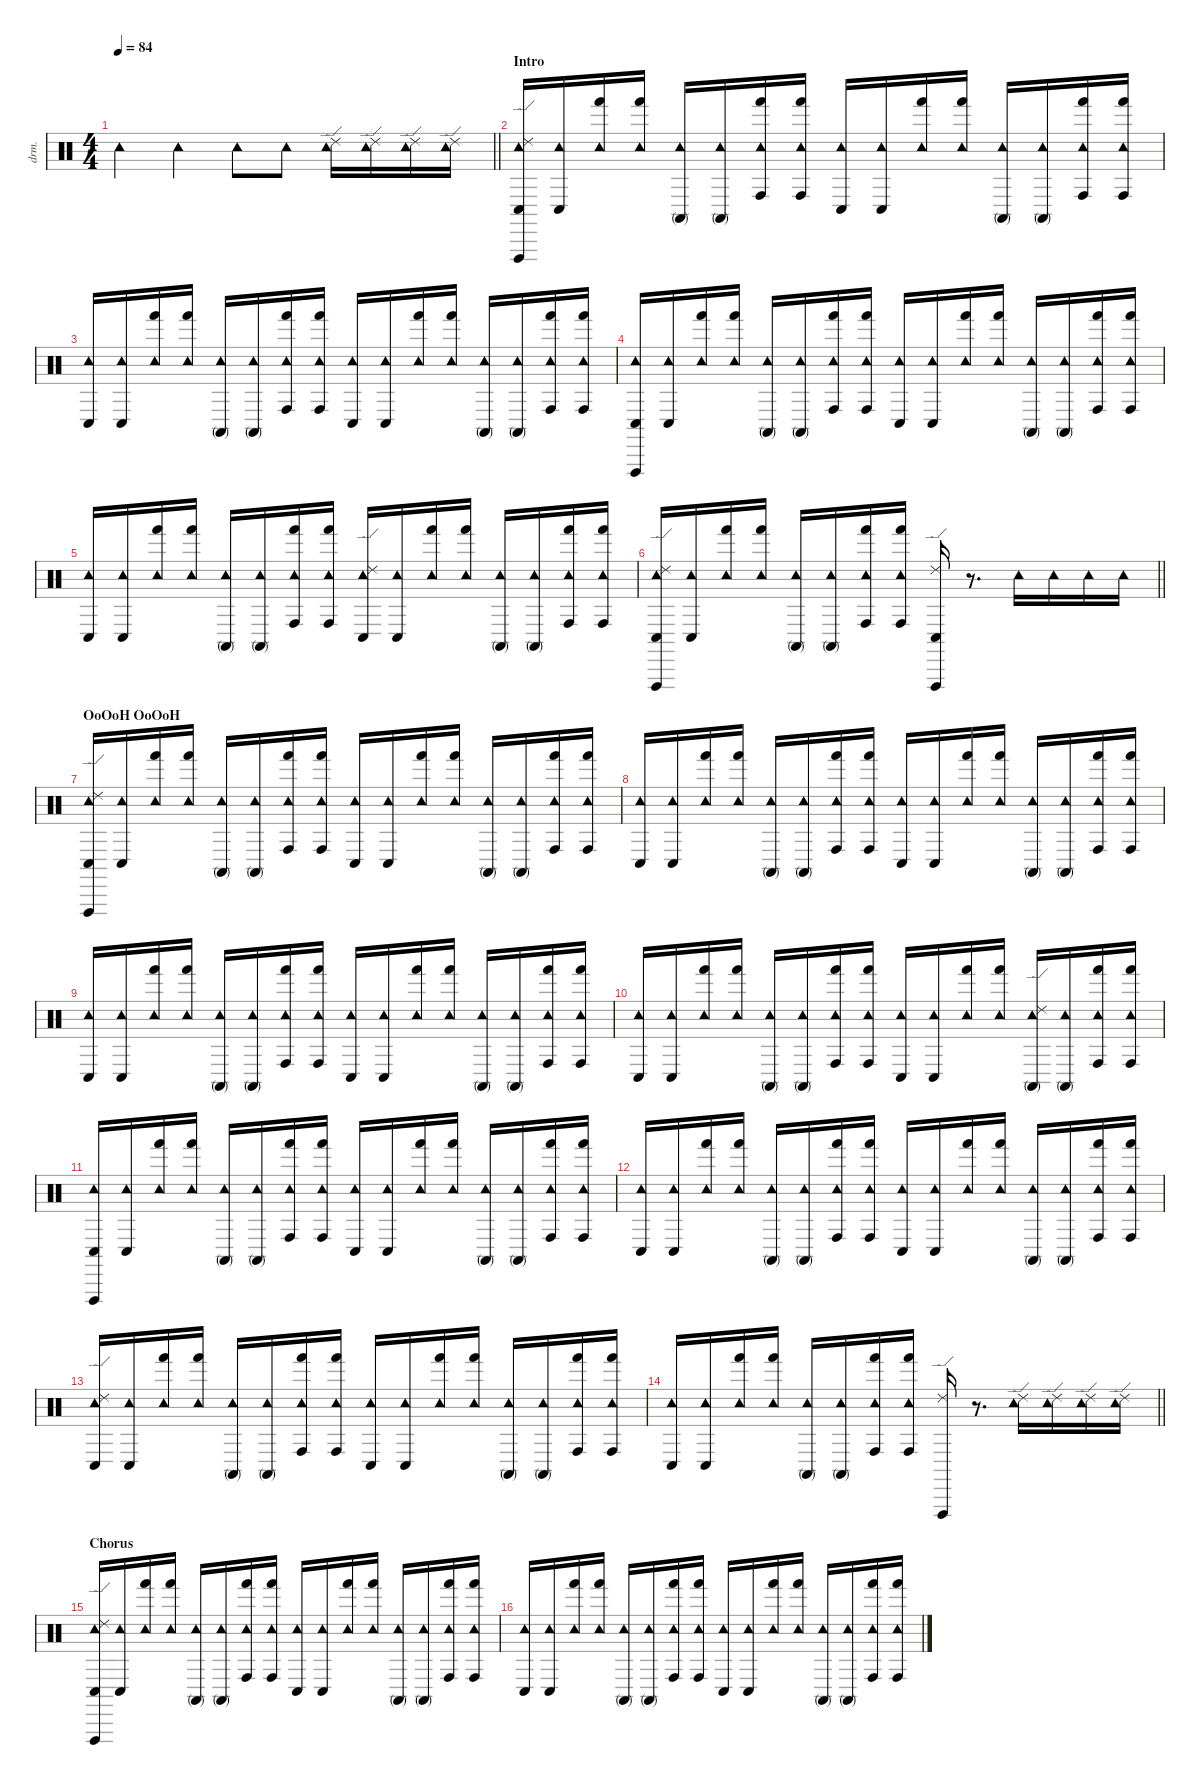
\defaultSystemsLayout 4
\hideDynamics
\bracketExtendMode nobrackets
\otherSystemsTrackNameOrientation horizontal
\track ("Conga + Tambourine" "drm.") {instrument percussion}
\staff {score}
\articulation defaults
\ts (4 4)
\tempo 84
\clef neutral
\barLineRight lightlight
\ks c "Tambourine (hit)".4{dy f beam Down} "Tambourine (hit)".4{beam Down} "Tambourine (hit)".8{beam Down} "Tambourine (hit)".8{dy mf beam Down}
("Tambourine (hit)" "Ride (edge) 2").16{dy mp beam Down} ("Tambourine (hit)" "Ride (edge) 2").16{dy mf beam Down} ("Tambourine (hit)" "Ride (edge) 2").16{dy f beam Down} ("Tambourine (hit)" "Ride (edge) 2").16{beam Down} |
\section ("" "Intro")
("Conga low (hit)" "Vibraslap (hit)" "Tambourine (hit)" "Ride (edge) 2").16{beam Up} ("Conga low (hit)" "Tambourine (hit)").16{beam Up} ("Hand (hit)" "Tambourine (hit)").16{beam Up} ("Hand (hit)" "Tambourine (hit)").16{beam Up} ("Conga high (mute)" "Tambourine (hit)").16{beam Up} ("Conga high (mute)" "Tambourine (hit)").16{beam Up} ("Conga high (hit)" "Hand (hit)" "Tambourine (hit)").16{beam Up} ("Conga high (hit)" "Hand (hit)" "Tambourine (hit)").16{beam Up} ("Conga low (hit)" "Tambourine (hit)").16{beam Up} ("Conga low (hit)" "Tambourine (hit)").16{beam Up} ("Hand (hit)" "Tambourine (hit)").16{beam Up} ("Hand (hit)" "Tambourine (hit)").16{beam Up} ("Conga high (mute)" "Tambourine (hit)").16{beam Up} ("Conga high (mute)" "Tambourine (hit)").16{beam Up} ("Conga high (hit)" "Hand (hit)" "Tambourine (hit)").16{beam Up} ("Conga high (hit)" "Hand (hit)" "Tambourine (hit)").16{beam Up} |
("Conga low (hit)" "Tambourine (hit)").16{beam Up} ("Conga low (hit)" "Tambourine (hit)").16{beam Up} ("Hand (hit)" "Tambourine (hit)").16{beam Up} ("Hand (hit)" "Tambourine (hit)").16{beam Up} ("Conga high (mute)" "Tambourine (hit)").16{beam Up} ("Conga high (mute)" "Tambourine (hit)").16{beam Up} ("Conga high (hit)" "Hand (hit)" "Tambourine (hit)").16{beam Up} ("Conga high (hit)" "Hand (hit)" "Tambourine (hit)").16{beam Up} ("Conga low (hit)" "Tambourine (hit)").16{beam Up} ("Conga low (hit)" "Tambourine (hit)").16{beam Up} ("Hand (hit)" "Tambourine (hit)").16{beam Up} ("Hand (hit)" "Tambourine (hit)").16{beam Up} ("Conga high (mute)" "Tambourine (hit)").16{beam Up} ("Conga high (mute)" "Tambourine (hit)").16{beam Up} ("Conga high (hit)" "Hand (hit)" "Tambourine (hit)").16{beam Up} ("Conga high (hit)" "Hand (hit)" "Tambourine (hit)").16{beam Up} |
("Conga low (hit)" "Vibraslap (hit)" "Tambourine (hit)").16{beam Up} ("Conga low (hit)" "Tambourine (hit)").16{beam Up} ("Hand (hit)" "Tambourine (hit)").16{beam Up} ("Hand (hit)" "Tambourine (hit)").16{beam Up} ("Conga high (mute)" "Tambourine (hit)").16{beam Up} ("Conga high (mute)" "Tambourine (hit)").16{beam Up} ("Conga high (hit)" "Hand (hit)" "Tambourine (hit)").16{beam Up} ("Conga high (hit)" "Hand (hit)" "Tambourine (hit)").16{beam Up} ("Conga low (hit)" "Tambourine (hit)").16{beam Up} ("Conga low (hit)" "Tambourine (hit)").16{beam Up} ("Hand (hit)" "Tambourine (hit)").16{beam Up} ("Hand (hit)" "Tambourine (hit)").16{beam Up} ("Conga high (mute)" "Tambourine (hit)").16{beam Up} ("Conga high (mute)" "Tambourine (hit)").16{beam Up} ("Conga high (hit)" "Hand (hit)" "Tambourine (hit)").16{beam Up} ("Conga high (hit)" "Hand (hit)" "Tambourine (hit)").16{beam Up} |
("Conga low (hit)" "Tambourine (hit)").16{beam Up} ("Conga low (hit)" "Tambourine (hit)").16{beam Up} ("Hand (hit)" "Tambourine (hit)").16{beam Up} ("Hand (hit)" "Tambourine (hit)").16{beam Up} ("Conga high (mute)" "Tambourine (hit)").16{beam Up} ("Conga high (mute)" "Tambourine (hit)").16{beam Up} ("Conga high (hit)" "Hand (hit)" "Tambourine (hit)").16{beam Up} ("Conga high (hit)" "Hand (hit)" "Tambourine (hit)").16{beam Up} ("Conga low (hit)" "Tambourine (hit)" "Ride (edge) 2").16{beam Up} ("Conga low (hit)" "Tambourine (hit)").16{beam Up} ("Hand (hit)" "Tambourine (hit)").16{beam Up} ("Hand (hit)" "Tambourine (hit)").16{beam Up} ("Conga high (mute)" "Tambourine (hit)").16{beam Up} ("Conga high (mute)" "Tambourine (hit)").16{beam Up} ("Conga high (hit)" "Hand (hit)" "Tambourine (hit)").16{beam Up} ("Conga high (hit)" "Hand (hit)" "Tambourine (hit)").16{beam Up} |
\barLineRight lightlight
("Conga low (hit)" "Vibraslap (hit)" "Tambourine (hit)" "Ride (edge) 2").16{beam Up} ("Conga low (hit)" "Tambourine (hit)").16{beam Up} ("Hand (hit)" "Tambourine (hit)").16{beam Up} ("Hand (hit)" "Tambourine (hit)").16{beam Up} ("Conga high (mute)" "Tambourine (hit)").16{beam Up} ("Conga high (mute)" "Tambourine (hit)").16{beam Up} ("Conga high (hit)" "Hand (hit)" "Tambourine (hit)").16{beam Up} ("Conga high (hit)" "Hand (hit)" "Tambourine (hit)").16{beam Up} ("Conga low (hit)" "Vibraslap (hit)" "Ride (edge) 2").16{beam Up} r.8{d beam Up} "Tambourine (hit)".16{dy mp beam Down} "Tambourine (hit)".16{beam Down} "Tambourine (hit)".16{dy mf beam Down} "Tambourine (hit)".16{dy f beam Down} |
\section ("" "OoOoH OoOoH")
("Conga low (hit)" "Vibraslap (hit)" "Tambourine (hit)" "Ride (edge) 2").16{beam Up} ("Conga low (hit)" "Tambourine (hit)").16{beam Up} ("Hand (hit)" "Tambourine (hit)").16{beam Up} ("Hand (hit)" "Tambourine (hit)").16{beam Up} ("Conga high (mute)" "Tambourine (hit)").16{beam Up} ("Conga high (mute)" "Tambourine (hit)").16{beam Up} ("Conga high (hit)" "Hand (hit)" "Tambourine (hit)").16{beam Up} ("Conga high (hit)" "Hand (hit)" "Tambourine (hit)").16{beam Up} ("Conga low (hit)" "Tambourine (hit)").16{beam Up} ("Conga low (hit)" "Tambourine (hit)").16{beam Up} ("Hand (hit)" "Tambourine (hit)").16{beam Up} ("Hand (hit)" "Tambourine (hit)").16{beam Up} ("Conga high (mute)" "Tambourine (hit)").16{beam Up} ("Conga high (mute)" "Tambourine (hit)").16{beam Up} ("Conga high (hit)" "Hand (hit)" "Tambourine (hit)").16{beam Up} ("Conga high (hit)" "Hand (hit)" "Tambourine (hit)").16{beam Up} |
("Conga low (hit)" "Tambourine (hit)").16{beam Up} ("Conga low (hit)" "Tambourine (hit)").16{beam Up} ("Hand (hit)" "Tambourine (hit)").16{beam Up} ("Hand (hit)" "Tambourine (hit)").16{beam Up} ("Conga high (mute)" "Tambourine (hit)").16{beam Up} ("Conga high (mute)" "Tambourine (hit)").16{beam Up} ("Conga high (hit)" "Hand (hit)" "Tambourine (hit)").16{beam Up} ("Conga high (hit)" "Hand (hit)" "Tambourine (hit)").16{beam Up} ("Conga low (hit)" "Tambourine (hit)").16{beam Up} ("Conga low (hit)" "Tambourine (hit)").16{beam Up} ("Hand (hit)" "Tambourine (hit)").16{beam Up} ("Hand (hit)" "Tambourine (hit)").16{beam Up} ("Conga high (mute)" "Tambourine (hit)").16{beam Up} ("Conga high (mute)" "Tambourine (hit)").16{beam Up} ("Conga high (hit)" "Hand (hit)" "Tambourine (hit)").16{beam Up} ("Conga high (hit)" "Hand (hit)" "Tambourine (hit)").16{beam Up} |
("Conga low (hit)" "Tambourine (hit)").16{beam Up} ("Conga low (hit)" "Tambourine (hit)").16{beam Up} ("Hand (hit)" "Tambourine (hit)").16{beam Up} ("Hand (hit)" "Tambourine (hit)").16{beam Up} ("Conga high (mute)" "Tambourine (hit)").16{beam Up} ("Conga high (mute)" "Tambourine (hit)").16{beam Up} ("Conga high (hit)" "Hand (hit)" "Tambourine (hit)").16{beam Up} ("Conga high (hit)" "Hand (hit)" "Tambourine (hit)").16{beam Up} ("Conga low (hit)" "Tambourine (hit)").16{beam Up} ("Conga low (hit)" "Tambourine (hit)").16{beam Up} ("Hand (hit)" "Tambourine (hit)").16{beam Up} ("Hand (hit)" "Tambourine (hit)").16{beam Up} ("Conga high (mute)" "Tambourine (hit)").16{beam Up} ("Conga high (mute)" "Tambourine (hit)").16{beam Up} ("Conga high (hit)" "Hand (hit)" "Tambourine (hit)").16{beam Up} ("Conga high (hit)" "Hand (hit)" "Tambourine (hit)").16{beam Up} |
("Conga low (hit)" "Tambourine (hit)").16{beam Up} ("Conga low (hit)" "Tambourine (hit)").16{beam Up} ("Hand (hit)" "Tambourine (hit)").16{beam Up} ("Hand (hit)" "Tambourine (hit)").16{beam Up} ("Conga high (mute)" "Tambourine (hit)").16{beam Up} ("Conga high (mute)" "Tambourine (hit)").16{beam Up} ("Conga high (hit)" "Hand (hit)" "Tambourine (hit)").16{beam Up} ("Conga high (hit)" "Hand (hit)" "Tambourine (hit)").16{beam Up} ("Conga low (hit)" "Tambourine (hit)").16{beam Up} ("Conga low (hit)" "Tambourine (hit)").16{beam Up} ("Hand (hit)" "Tambourine (hit)").16{beam Up} ("Hand (hit)" "Tambourine (hit)").16{beam Up} ("Conga high (mute)" "Tambourine (hit)" "Ride (edge) 2").16{beam Up} ("Conga high (mute)" "Tambourine (hit)").16{beam Up} ("Conga high (hit)" "Hand (hit)" "Tambourine (hit)").16{beam Up} ("Conga high (hit)" "Hand (hit)" "Tambourine (hit)").16{beam Up} |
("Conga low (hit)" "Vibraslap (hit)" "Tambourine (hit)").16{beam Up} ("Conga low (hit)" "Tambourine (hit)").16{beam Up} ("Hand (hit)" "Tambourine (hit)").16{beam Up} ("Hand (hit)" "Tambourine (hit)").16{beam Up} ("Conga high (mute)" "Tambourine (hit)").16{beam Up} ("Conga high (mute)" "Tambourine (hit)").16{beam Up} ("Conga high (hit)" "Hand (hit)" "Tambourine (hit)").16{beam Up} ("Conga high (hit)" "Hand (hit)" "Tambourine (hit)").16{beam Up} ("Conga low (hit)" "Tambourine (hit)").16{beam Up} ("Conga low (hit)" "Tambourine (hit)").16{beam Up} ("Hand (hit)" "Tambourine (hit)").16{beam Up} ("Hand (hit)" "Tambourine (hit)").16{beam Up} ("Conga high (mute)" "Tambourine (hit)").16{beam Up} ("Conga high (mute)" "Tambourine (hit)").16{beam Up} ("Conga high (hit)" "Hand (hit)" "Tambourine (hit)").16{beam Up} ("Conga high (hit)" "Hand (hit)" "Tambourine (hit)").16{beam Up} |
("Conga low (hit)" "Tambourine (hit)").16{beam Up} ("Conga low (hit)" "Tambourine (hit)").16{beam Up} ("Hand (hit)" "Tambourine (hit)").16{beam Up} ("Hand (hit)" "Tambourine (hit)").16{beam Up} ("Conga high (mute)" "Tambourine (hit)").16{beam Up} ("Conga high (mute)" "Tambourine (hit)").16{beam Up} ("Conga high (hit)" "Hand (hit)" "Tambourine (hit)").16{beam Up} ("Conga high (hit)" "Hand (hit)" "Tambourine (hit)").16{beam Up} ("Conga low (hit)" "Tambourine (hit)").16{beam Up} ("Conga low (hit)" "Tambourine (hit)").16{beam Up} ("Hand (hit)" "Tambourine (hit)").16{beam Up} ("Hand (hit)" "Tambourine (hit)").16{beam Up} ("Conga high (mute)" "Tambourine (hit)").16{beam Up} ("Conga high (mute)" "Tambourine (hit)").16{beam Up} ("Conga high (hit)" "Hand (hit)" "Tambourine (hit)").16{beam Up} ("Conga high (hit)" "Hand (hit)" "Tambourine (hit)").16{beam Up} |
("Conga low (hit)" "Tambourine (hit)" "Ride (edge) 2").16{beam Up} ("Conga low (hit)" "Tambourine (hit)").16{beam Up} ("Hand (hit)" "Tambourine (hit)").16{beam Up} ("Hand (hit)" "Tambourine (hit)").16{beam Up} ("Conga high (mute)" "Tambourine (hit)").16{beam Up} ("Conga high (mute)" "Tambourine (hit)").16{beam Up} ("Conga high (hit)" "Hand (hit)" "Tambourine (hit)").16{beam Up} ("Conga high (hit)" "Hand (hit)" "Tambourine (hit)").16{beam Up} ("Conga low (hit)" "Tambourine (hit)").16{beam Up} ("Conga low (hit)" "Tambourine (hit)").16{beam Up} ("Hand (hit)" "Tambourine (hit)").16{beam Up} ("Hand (hit)" "Tambourine (hit)").16{beam Up} ("Conga high (mute)" "Tambourine (hit)").16{beam Up} ("Conga high (mute)" "Tambourine (hit)").16{beam Up} ("Conga high (hit)" "Hand (hit)" "Tambourine (hit)").16{beam Up} ("Conga high (hit)" "Hand (hit)" "Tambourine (hit)").16{beam Up} |
\barLineRight lightlight
("Conga low (hit)" "Tambourine (hit)").16{beam Up} ("Conga low (hit)" "Tambourine (hit)").16{beam Up} ("Hand (hit)" "Tambourine (hit)").16{beam Up} ("Hand (hit)" "Tambourine (hit)").16{beam Up} ("Conga high (mute)" "Tambourine (hit)").16{beam Up} ("Conga high (mute)" "Tambourine (hit)").16{beam Up} ("Conga high (hit)" "Hand (hit)" "Tambourine (hit)").16{beam Up} ("Conga high (hit)" "Hand (hit)" "Tambourine (hit)").16{beam Up} ("Vibraslap (hit)" "Ride (edge) 2").16{beam Up} r.8{d beam Up} ("Tambourine (hit)" "Ride (edge) 2").16{dy mp beam Down} ("Tambourine (hit)" "Ride (edge) 2").16{dy mf beam Down} ("Tambourine (hit)" "Ride (edge) 2").16{dy f beam Down} ("Tambourine (hit)" "Ride (edge) 2").16{beam Down} |
\section ("" "Chorus")
("Conga low (hit)" "Vibraslap (hit)" "Tambourine (hit)" "Ride (edge) 2").16{beam Up} ("Conga low (hit)" "Tambourine (hit)").16{beam Up} ("Hand (hit)" "Tambourine (hit)").16{beam Up} ("Hand (hit)" "Tambourine (hit)").16{beam Up} ("Conga high (mute)" "Tambourine (hit)").16{beam Up} ("Conga high (mute)" "Tambourine (hit)").16{beam Up} ("Conga high (hit)" "Hand (hit)" "Tambourine (hit)").16{beam Up} ("Conga high (hit)" "Hand (hit)" "Tambourine (hit)").16{beam Up} ("Conga low (hit)" "Tambourine (hit)").16{beam Up} ("Conga low (hit)" "Tambourine (hit)").16{beam Up} ("Hand (hit)" "Tambourine (hit)").16{beam Up} ("Hand (hit)" "Tambourine (hit)").16{beam Up} ("Conga high (mute)" "Tambourine (hit)").16{beam Up} ("Conga high (mute)" "Tambourine (hit)").16{beam Up} ("Conga high (hit)" "Hand (hit)" "Tambourine (hit)").16{beam Up} ("Conga high (hit)" "Hand (hit)" "Tambourine (hit)").16{beam Up} |
("Conga low (hit)" "Tambourine (hit)").16{beam Up} ("Conga low (hit)" "Tambourine (hit)").16{beam Up} ("Hand (hit)" "Tambourine (hit)").16{beam Up} ("Hand (hit)" "Tambourine (hit)").16{beam Up} ("Conga high (mute)" "Tambourine (hit)").16{beam Up} ("Conga high (mute)" "Tambourine (hit)").16{beam Up} ("Conga high (hit)" "Hand (hit)" "Tambourine (hit)").16{beam Up} ("Conga high (hit)" "Hand (hit)" "Tambourine (hit)").16{beam Up} ("Conga low (hit)" "Tambourine (hit)").16{beam Up} ("Conga low (hit)" "Tambourine (hit)").16{beam Up} ("Hand (hit)" "Tambourine (hit)").16{beam Up} ("Hand (hit)" "Tambourine (hit)").16{beam Up} ("Conga high (mute)" "Tambourine (hit)").16{beam Up} ("Conga high (mute)" "Tambourine (hit)").16{beam Up} ("Conga high (hit)" "Hand (hit)" "Tambourine (hit)").16{beam Up} ("Conga high (hit)" "Hand (hit)" "Tambourine (hit)").16{beam Up}
